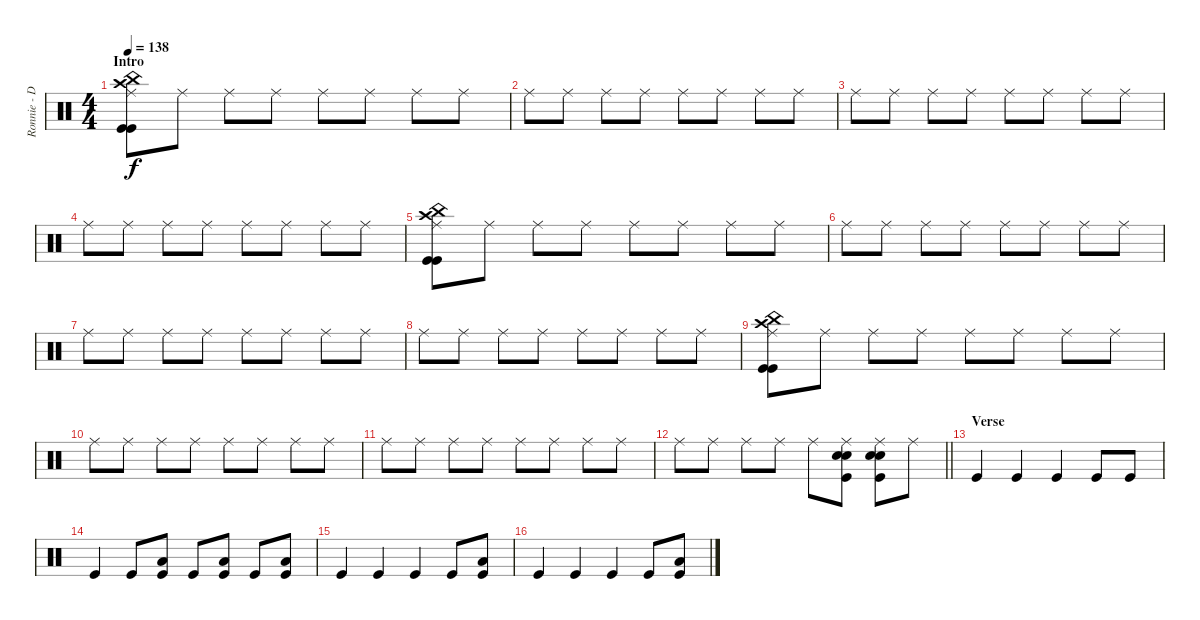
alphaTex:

\track ("Ronnie - Drums" "Ronnie - D") {instrument percussion}
\staff {score}
\articulation defaults
\ts (4 4)
\section ("" "Intro")
\tempo 138
\clef neutral
\ks c
("Ride (middle)" "Crash high (hit)" "China (hit)" "Kick (hit)" "Kick (hit)").8{dy f} "Ride (middle)".8 "Ride (middle)".8 "Ride (middle)".8 "Ride (middle)".8 "Ride (middle)".8 "Ride (middle)".8 "Ride (middle)".8 |
"Ride (middle)".8 "Ride (middle)".8 "Ride (middle)".8 "Ride (middle)".8 "Ride (middle)".8 "Ride (middle)".8 "Ride (middle)".8 "Ride (middle)".8 |
"Ride (middle)".8 "Ride (middle)".8 "Ride (middle)".8 "Ride (middle)".8 "Ride (middle)".8 "Ride (middle)".8 "Ride (middle)".8 "Ride (middle)".8 |
"Ride (middle)".8 "Ride (middle)".8 "Ride (middle)".8 "Ride (middle)".8 "Ride (middle)".8 "Ride (middle)".8 "Ride (middle)".8 "Ride (middle)".8 |
("Ride (middle)" "Crash high (hit)" "China (hit)" "Kick (hit)" "Kick (hit)").8 "Ride (middle)".8 "Ride (middle)".8 "Ride (middle)".8 "Ride (middle)".8 "Ride (middle)".8 "Ride (middle)".8 "Ride (middle)".8 |
"Ride (middle)".8 "Ride (middle)".8 "Ride (middle)".8 "Ride (middle)".8 "Ride (middle)".8 "Ride (middle)".8 "Ride (middle)".8 "Ride (middle)".8 |
"Ride (middle)".8 "Ride (middle)".8 "Ride (middle)".8 "Ride (middle)".8 "Ride (middle)".8 "Ride (middle)".8 "Ride (middle)".8 "Ride (middle)".8 |
"Ride (middle)".8 "Ride (middle)".8 "Ride (middle)".8 "Ride (middle)".8 "Ride (middle)".8 "Ride (middle)".8 "Ride (middle)".8 "Ride (middle)".8 |
("Ride (middle)" "Crash high (hit)" "China (hit)" "Kick (hit)" "Kick (hit)").8 "Ride (middle)".8 "Ride (middle)".8 "Ride (middle)".8 "Ride (middle)".8 "Ride (middle)".8 "Ride (middle)".8 "Ride (middle)".8 |
"Ride (middle)".8 "Ride (middle)".8 "Ride (middle)".8 "Ride (middle)".8 "Ride (middle)".8 "Ride (middle)".8 "Ride (middle)".8 "Ride (middle)".8 |
"Ride (middle)".8 "Ride (middle)".8 "Ride (middle)".8 "Ride (middle)".8 "Ride (middle)".8 "Ride (middle)".8 "Ride (middle)".8 "Ride (middle)".8 |
\barLineRight lightlight "Ride (middle)".8 "Ride (middle)".8 "Ride (middle)".8 "Ride (middle)".8 "Ride (middle)".8
("Ride (middle)" "Snare (hit) 2" "Snare (hit) 2" "Kick (hit)").8 ("Ride (middle)" "Snare (hit) 2" "Snare (hit) 2" "Kick (hit)").8 "Ride (middle)".8 |
\section ("" "Verse")
"Kick (hit)".4 "Kick (hit)".4 "Kick (hit)".4 "Kick (hit)".8 "Kick (hit)".8 |
"Kick (hit)".4 "Kick (hit)".8 ("Low Tom (hit)" "Kick (hit)").8 "Kick (hit)".8 ("Low Tom (hit)" "Kick (hit)").8 "Kick (hit)".8 ("Low Tom (hit)" "Kick (hit)").8 |
"Kick (hit)".4 "Kick (hit)".4 "Kick (hit)".4 "Kick (hit)".8 ("Low Tom (hit)" "Kick (hit)").8 |
"Kick (hit)".4 "Kick (hit)".4 "Kick (hit)".4 "Kick (hit)".8 ("Low Tom (hit)" "Kick (hit)").8
